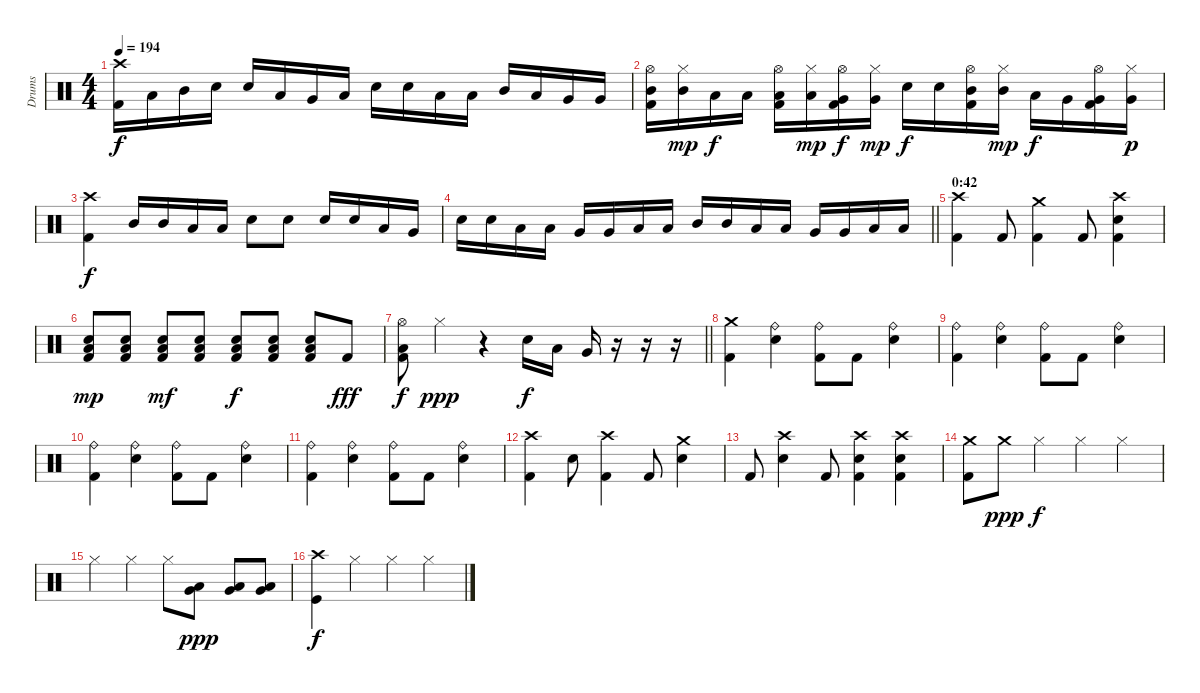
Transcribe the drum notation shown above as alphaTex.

\track ("Drums" "Drums") {instrument percussion}
\staff {score}
\articulation defaults
\ts (4 4)
\tempo 194
\clef neutral
\ks c
("Crash high (hit)" "Kick (hit) 2").16{dy f} "Low Tom (hit)".16 "Mid Tom (hit)".16 "Snare (hit) 2".16 "Snare (hit) 2".16 "Low Tom (hit)".16 "Very Low Tom (hit)".16 "Low Tom (hit)".16 "Snare (hit) 2".16 "Snare (hit) 2".16 "Low Tom (hit)".16 "Low Tom (hit)".16 "Mid Tom (hit)".16 "Low Tom (hit)".16 "Very Low Tom (hit)".16 "Very Low Tom (hit)".16 |
("Hi-Hat (open)" "Mid Tom (hit)" "Kick (hit) 2").16 ("Hi-Hat (closed)" "Mid Tom (hit)").16{dy mp} "Low Tom (hit)".16{dy f} "Low Tom (hit)".16 ("Hi-Hat (open)" "Low Tom (hit)" "Kick (hit) 2").16 ("Hi-Hat (closed)" "Low Tom (hit)").16{dy mp} ("Hi-Hat (open)" "Very Low Tom (hit)" "Kick (hit) 2").16{dy f} ("Hi-Hat (closed)" "Very Low Tom (hit)").16{dy mp} "Snare (hit) 2".16{dy f} "Snare (hit) 2".16 ("Hi-Hat (open)" "Mid Tom (hit)" "Kick (hit) 2").16 ("Hi-Hat (closed)" "Mid Tom (hit)").16{dy mp} "Low Tom (hit)".16{dy f} "Very Low Tom (hit)".16 ("Hi-Hat (open)" "Very Low Tom (hit)" "Kick (hit) 2").16 ("Hi-Hat (closed)" "Very Low Tom (hit)").16{dy p} |
("Crash high (hit)" "Kick (hit) 2").4{dy f} "Mid Tom (hit)".16 "Mid Tom (hit)".16 "Low Tom (hit)".16 "Low Tom (hit)".16 "Snare (hit) 2".8 "Snare (hit) 2".8 "Snare (hit) 2".16 "Snare (hit) 2".16 "Low Tom (hit)".16 "Very Low Tom (hit)".16 |
\barLineRight lightlight "Snare (hit) 2".16 "Snare (hit) 2".16 "Low Tom (hit)".16 "Low Tom (hit)".16 "Very Low Tom (hit)".16 "Very Low Tom (hit)".16 "Low Tom (hit)".16 "Low Tom (hit)".16 "Mid Tom (hit)".16 "Mid Tom (hit)".16 "Low Tom (hit)".16 "Low Tom (hit)".16 "Very Low Tom (hit)".16 "Very Low Tom (hit)".16 "Low Floor Tom (hit)".16 "Low Floor Tom (hit)".16
|
\section ("" "0:42")
("Crash high (hit)" "Kick (hit) 2").4 "Kick (hit) 2".8 ("Crash medium (hit)" "Kick (hit) 2").4 "Kick (hit) 2".8 ("Crash high (hit)" "Snare (hit) 2" "Kick (hit) 2").4 |
("Snare (hit) 2" "Low Tom (hit)" "Kick (hit) 2").8{dy mp} ("Snare (hit) 2" "Low Tom (hit)" "Kick (hit) 2").8 ("Snare (hit) 2" "Low Tom (hit)" "Kick (hit) 2").8{dy mf} ("Snare (hit) 2" "Low Tom (hit)" "Kick (hit) 2").8 ("Snare (hit) 2" "Low Tom (hit)" "Kick (hit) 2").8{dy f} ("Snare (hit) 2" "Low Tom (hit)" "Kick (hit) 2").8 ("Snare (hit) 2" "Low Tom (hit)" "Kick (hit) 2").8 "Kick (hit) 2".8{dy fff} |
\barLineRight lightlight
("Hi-Hat (open)" "Low Tom (hit)" "Kick (hit) 2").8{dy f} "Hi-Hat (closed)".4{dy ppp} r.4 "Snare (hit) 2".16{dy f} "Low Tom (hit)".16 "Very Low Tom (hit)".16 r.16 r.16 r.16 |
("Crash medium (hit)" "Kick (hit) 2").4 ("Ride (bell)" "Snare (hit) 2").4 ("Ride (bell)" "Kick (hit) 2").8 "Kick (hit) 2".8 ("Ride (bell)" "Snare (hit) 2").4 |
("Ride (bell)" "Kick (hit) 2").4 ("Ride (bell)" "Snare (hit) 2").4 ("Ride (bell)" "Kick (hit) 2").8 "Kick (hit) 2".8 ("Ride (bell)" "Snare (hit) 2").4 |
("Ride (bell)" "Kick (hit) 2").4 ("Ride (bell)" "Snare (hit) 2").4 ("Ride (bell)" "Kick (hit) 2").8 "Kick (hit) 2".8 ("Ride (bell)" "Snare (hit) 2").4 |
("Ride (bell)" "Kick (hit) 2").4 ("Ride (bell)" "Snare (hit) 2").4 ("Ride (bell)" "Kick (hit) 2").8 "Kick (hit) 2".8 ("Ride (bell)" "Snare (hit) 2").4 |
("Crash high (hit)" "Kick (hit) 2").4 "Snare (hit) 2".8 ("Crash high (hit)" "Kick (hit) 2").4 "Kick (hit) 2".8 ("Crash medium (hit)" "Snare (hit) 2").4 |
"Kick (hit) 2".8 ("Crash high (hit)" "Snare (hit) 2").4 "Kick (hit) 2".8 ("Crash high (hit)" "Snare (hit) 2" "Kick (hit) 2").4 ("Crash high (hit)" "Snare (hit) 2" "Kick (hit) 2").4 |
("Crash medium (hit)" "Kick (hit) 2").8 "Crash medium (hit)".8{dy ppp} "Hi-Hat (closed)".4{dy f} "Hi-Hat (closed)".4 "Hi-Hat (closed)".4 |
"Hi-Hat (closed)".4 "Hi-Hat (closed)".4 "Hi-Hat (closed)".8 ("Very Low Tom (hit)" "Low Tom (hit)").8{dy ppp} ("Very Low Tom (hit)" "Low Tom (hit)").8 ("Very Low Tom (hit)" "Low Tom (hit)").8 |
("Kick (hit)" "Crash high (hit)").4{dy f} "Hi-Hat (closed)".4 "Hi-Hat (closed)".4 "Hi-Hat (closed)".4
